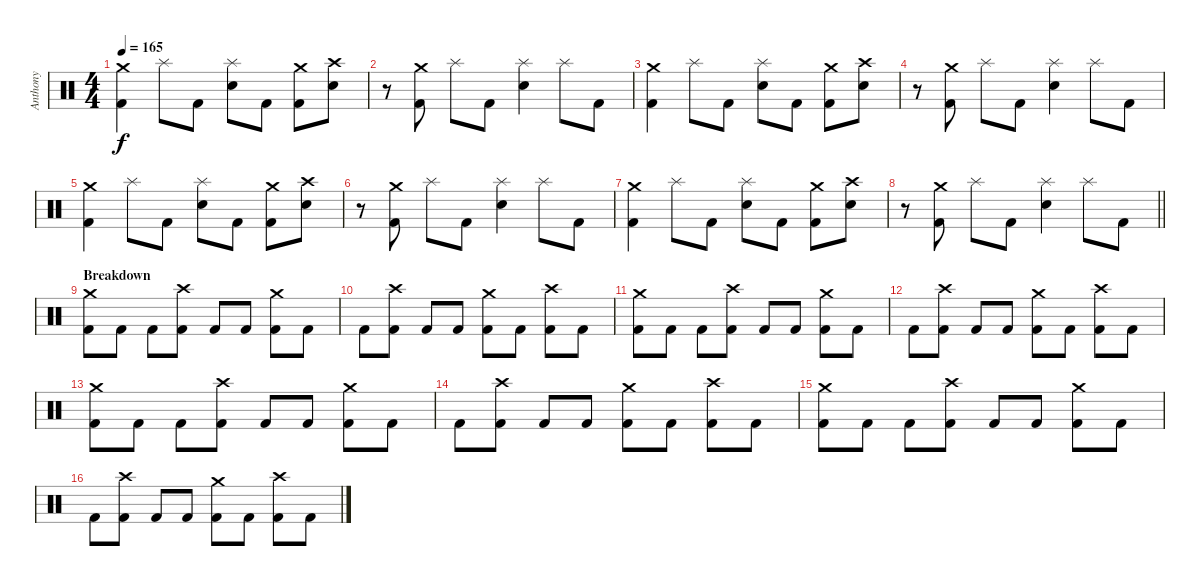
\track ("Anthony" "Anthony") {instrument percussion}
\staff {score}
\articulation defaults
\ts (4 4)
\tempo 165
\clef neutral
\ks c
("Crash medium (hit)" "Kick (hit) 2").4{dy f} "Splash (hit)".8 "Kick (hit) 2".8 ("Splash (hit)" "Electric Snare (hit)").8 "Kick (hit) 2".8 ("Crash medium (hit)" "Kick (hit) 2").8 ("Crash high (hit)" "Electric Snare (hit)").8 |
r.8 ("Crash medium (hit)" "Kick (hit) 2").8 "Splash (hit)".8 "Kick (hit) 2".8 ("Splash (hit)" "Electric Snare (hit)").4 "Splash (hit)".8 "Kick (hit) 2".8 |
("Crash medium (hit)" "Kick (hit) 2").4 "Splash (hit)".8 "Kick (hit) 2".8 ("Splash (hit)" "Electric Snare (hit)").8 "Kick (hit) 2".8 ("Crash medium (hit)" "Kick (hit) 2").8 ("Crash high (hit)" "Electric Snare (hit)").8 |
r.8 ("Crash medium (hit)" "Kick (hit) 2").8 "Splash (hit)".8 "Kick (hit) 2".8 ("Splash (hit)" "Electric Snare (hit)").4 "Splash (hit)".8 "Kick (hit) 2".8 |
("Crash medium (hit)" "Kick (hit) 2").4 "Splash (hit)".8 "Kick (hit) 2".8 ("Splash (hit)" "Electric Snare (hit)").8 "Kick (hit) 2".8 ("Crash medium (hit)" "Kick (hit) 2").8 ("Crash high (hit)" "Electric Snare (hit)").8 |
r.8 ("Crash medium (hit)" "Kick (hit) 2").8 "Splash (hit)".8 "Kick (hit) 2".8 ("Splash (hit)" "Electric Snare (hit)").4 "Splash (hit)".8 "Kick (hit) 2".8 |
("Crash medium (hit)" "Kick (hit) 2").4 "Splash (hit)".8 "Kick (hit) 2".8 ("Splash (hit)" "Electric Snare (hit)").8 "Kick (hit) 2".8 ("Crash medium (hit)" "Kick (hit) 2").8 ("Crash high (hit)" "Electric Snare (hit)").8 |
\barLineRight lightlight
r.8 ("Crash medium (hit)" "Kick (hit) 2").8 "Splash (hit)".8 "Kick (hit) 2".8 ("Splash (hit)" "Electric Snare (hit)").4 "Splash (hit)".8 "Kick (hit) 2".8 |
\section ("" "Breakdown")
("Crash medium (hit)" "Kick (hit) 2").8 "Kick (hit) 2".8 "Kick (hit) 2".8 ("Crash high (hit)" "Kick (hit) 2").8 "Kick (hit) 2".8 "Kick (hit) 2".8 ("Crash medium (hit)" "Kick (hit) 2").8 "Kick (hit) 2".8 |
"Kick (hit) 2".8 ("Crash high (hit)" "Kick (hit) 2").8 "Kick (hit) 2".8 "Kick (hit) 2".8 ("Crash medium (hit)" "Kick (hit) 2").8 "Kick (hit) 2".8 ("Crash high (hit)" "Kick (hit) 2").8 "Kick (hit) 2".8 |
("Crash medium (hit)" "Kick (hit) 2").8 "Kick (hit) 2".8 "Kick (hit) 2".8 ("Crash high (hit)" "Kick (hit) 2").8 "Kick (hit) 2".8 "Kick (hit) 2".8 ("Crash medium (hit)" "Kick (hit) 2").8 "Kick (hit) 2".8 |
"Kick (hit) 2".8 ("Crash high (hit)" "Kick (hit) 2").8 "Kick (hit) 2".8 "Kick (hit) 2".8 ("Crash medium (hit)" "Kick (hit) 2").8 "Kick (hit) 2".8 ("Crash high (hit)" "Kick (hit) 2").8 "Kick (hit) 2".8 |
("Crash medium (hit)" "Kick (hit) 2").8 "Kick (hit) 2".8 "Kick (hit) 2".8 ("Crash high (hit)" "Kick (hit) 2").8 "Kick (hit) 2".8 "Kick (hit) 2".8 ("Crash medium (hit)" "Kick (hit) 2").8 "Kick (hit) 2".8 |
"Kick (hit) 2".8 ("Crash high (hit)" "Kick (hit) 2").8 "Kick (hit) 2".8 "Kick (hit) 2".8 ("Crash medium (hit)" "Kick (hit) 2").8 "Kick (hit) 2".8 ("Crash high (hit)" "Kick (hit) 2").8 "Kick (hit) 2".8 |
("Crash medium (hit)" "Kick (hit) 2").8 "Kick (hit) 2".8 "Kick (hit) 2".8 ("Crash high (hit)" "Kick (hit) 2").8 "Kick (hit) 2".8 "Kick (hit) 2".8 ("Crash medium (hit)" "Kick (hit) 2").8 "Kick (hit) 2".8 |
"Kick (hit) 2".8 ("Crash high (hit)" "Kick (hit) 2").8 "Kick (hit) 2".8 "Kick (hit) 2".8 ("Crash medium (hit)" "Kick (hit) 2").8 "Kick (hit) 2".8 ("Crash high (hit)" "Kick (hit) 2").8 "Kick (hit) 2".8
